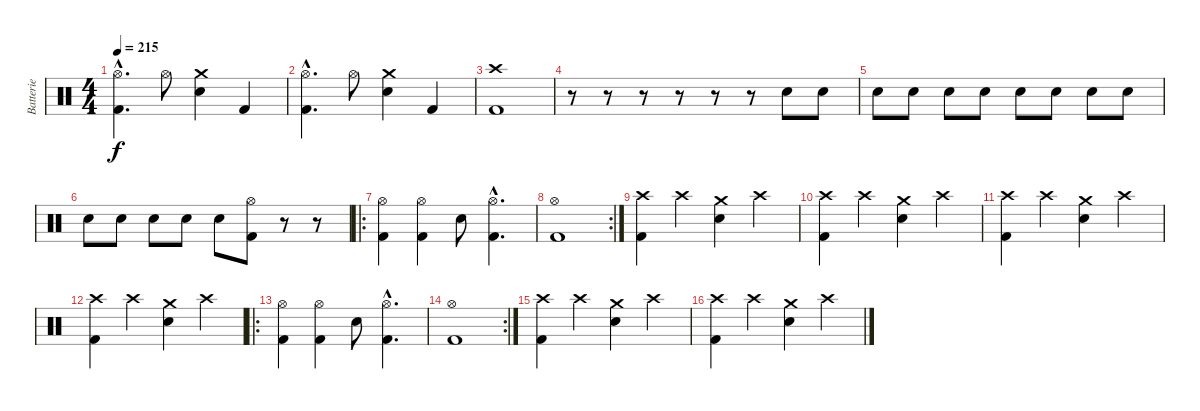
\track ("Batterie" "Batterie") {instrument percussion}
\staff {score}
\articulation defaults
\ts (4 4)
\tempo 215
\clef neutral
\ks c
("Hi-Hat (open)"{hac} "Kick (hit) 2"{hac}).4{d dy f} "Hi-Hat (open)".8 ("Crash medium (hit)" "Electric Snare (hit)").4 "Kick (hit) 2".4 |
("Hi-Hat (open)"{hac} "Kick (hit) 2"{hac}).4{d} "Hi-Hat (open)".8 ("Crash medium (hit)" "Electric Snare (hit)").4 "Kick (hit) 2".4 |
("Crash high (hit)" "Kick (hit) 2").1 |
r.8 r.8 r.8 r.8 r.8 r.8 "Electric Snare (hit)".8 "Electric Snare (hit)".8 |
"Electric Snare (hit)".8 "Electric Snare (hit)".8 "Electric Snare (hit)".8 "Electric Snare (hit)".8 "Electric Snare (hit)".8 "Electric Snare (hit)".8 "Electric Snare (hit)".8 "Electric Snare (hit)".8 |
"Electric Snare (hit)".8 "Electric Snare (hit)".8 "Electric Snare (hit)".8 "Electric Snare (hit)".8 "Electric Snare (hit)".8 ("Hi-Hat (open)" "Kick (hit) 2").8 r.8 r.8 |
\ro
("Hi-Hat (open)" "Kick (hit) 2").4 ("Hi-Hat (open)" "Kick (hit) 2").4 "Electric Snare (hit)".8 ("Hi-Hat (open)"{hac} "Kick (hit) 2"{hac}).4{d} |
\rc 2
("Hi-Hat (open)" "Kick (hit) 2").1 |
("Crash high (hit)" "Kick (hit) 2").4 "Crash high (hit)".4 ("Crash medium (hit)" "Electric Snare (hit)").4 "Crash high (hit)".4 |
("Crash high (hit)" "Kick (hit) 2").4 "Crash high (hit)".4 ("Crash medium (hit)" "Electric Snare (hit)").4 "Crash high (hit)".4 |
("Crash high (hit)" "Kick (hit) 2").4 "Crash high (hit)".4 ("Crash medium (hit)" "Electric Snare (hit)").4 "Crash high (hit)".4 |
("Crash high (hit)" "Kick (hit) 2").4 "Crash high (hit)".4 ("Crash medium (hit)" "Electric Snare (hit)").4 "Crash high (hit)".4 |
\ro
("Hi-Hat (open)" "Kick (hit) 2").4 ("Hi-Hat (open)" "Kick (hit) 2").4 "Electric Snare (hit)".8 ("Hi-Hat (open)"{hac} "Kick (hit) 2"{hac}).4{d} |
\rc 2
("Hi-Hat (open)" "Kick (hit) 2").1 |
("Crash high (hit)" "Kick (hit) 2").4 "Crash high (hit)".4 ("Crash medium (hit)" "Electric Snare (hit)").4 "Crash high (hit)".4 |
("Crash high (hit)" "Kick (hit) 2").4 "Crash high (hit)".4 ("Crash medium (hit)" "Electric Snare (hit)").4 "Crash high (hit)".4
